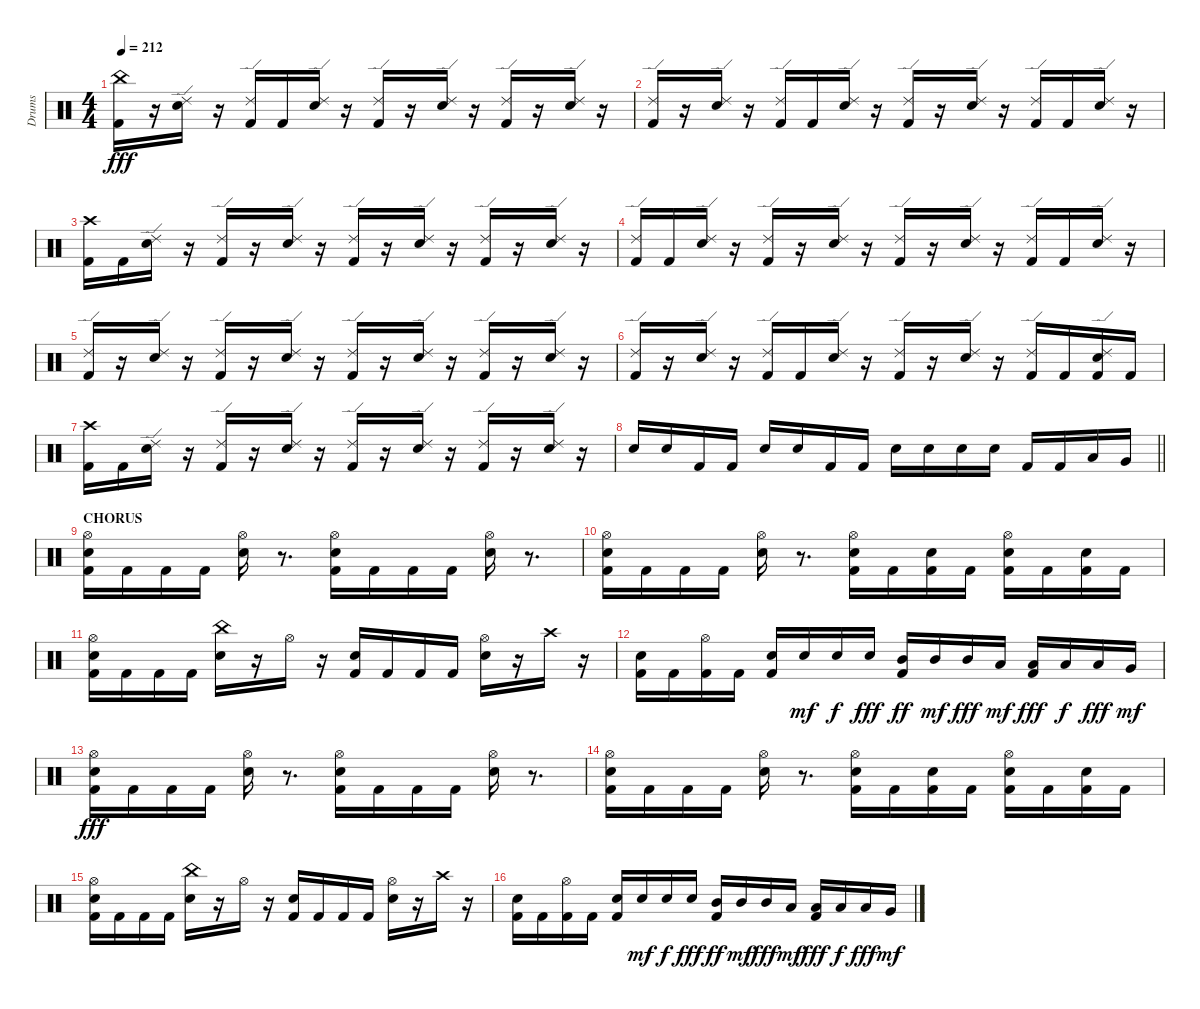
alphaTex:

\track ("Drums" "Drums") {instrument percussion}
\staff {score}
\articulation defaults
\ts (4 4)
\tempo 212
\clef neutral
\ks c
("Kick (hit) 2" "China (hit)").16{dy fff} r.16 ("Snare (hit) 2" "Ride (edge) 2").16 r.16 ("Kick (hit) 2" "Ride (edge) 2").16 "Kick (hit) 2".16 ("Snare (hit) 2" "Ride (edge) 2").16 r.16 ("Kick (hit) 2" "Ride (edge) 2").16 r.16 ("Snare (hit) 2" "Ride (edge) 2").16 r.16 ("Kick (hit) 2" "Ride (edge) 2").16 r.16 ("Snare (hit) 2" "Ride (edge) 2").16 r.16 |
("Kick (hit) 2" "Ride (edge) 2").16 r.16 ("Snare (hit) 2" "Ride (edge) 2").16 r.16 ("Kick (hit) 2" "Ride (edge) 2").16 "Kick (hit) 2".16 ("Snare (hit) 2" "Ride (edge) 2").16 r.16 ("Kick (hit) 2" "Ride (edge) 2").16 r.16 ("Snare (hit) 2" "Ride (edge) 2").16 r.16 ("Kick (hit) 2" "Ride (edge) 2").16 "Kick (hit) 2".16 ("Snare (hit) 2" "Ride (edge) 2").16 r.16 |
("Kick (hit) 2" "Crash high (hit)").16 "Kick (hit) 2".16 ("Snare (hit) 2" "Ride (edge) 2").16 r.16 ("Kick (hit) 2" "Ride (edge) 2").16 r.16 ("Snare (hit) 2" "Ride (edge) 2").16 r.16 ("Kick (hit) 2" "Ride (edge) 2").16 r.16 ("Snare (hit) 2" "Ride (edge) 2").16 r.16 ("Kick (hit) 2" "Ride (edge) 2").16 r.16 ("Snare (hit) 2" "Ride (edge) 2").16 r.16 |
("Kick (hit) 2" "Ride (edge) 2").16 "Kick (hit) 2".16 ("Snare (hit) 2" "Ride (edge) 2").16 r.16 ("Kick (hit) 2" "Ride (edge) 2").16 r.16 ("Snare (hit) 2" "Ride (edge) 2").16 r.16 ("Kick (hit) 2" "Ride (edge) 2").16 r.16 ("Snare (hit) 2" "Ride (edge) 2").16 r.16 ("Kick (hit) 2" "Ride (edge) 2").16 "Kick (hit) 2".16 ("Snare (hit) 2" "Ride (edge) 2").16 r.16 |
("Kick (hit) 2" "Ride (edge) 2").16 r.16 ("Snare (hit) 2" "Ride (edge) 2").16 r.16 ("Kick (hit) 2" "Ride (edge) 2").16 r.16 ("Snare (hit) 2" "Ride (edge) 2").16 r.16 ("Kick (hit) 2" "Ride (edge) 2").16 r.16 ("Snare (hit) 2" "Ride (edge) 2").16 r.16 ("Kick (hit) 2" "Ride (edge) 2").16 r.16 ("Snare (hit) 2" "Ride (edge) 2").16 r.16 |
("Kick (hit) 2" "Ride (edge) 2").16 r.16 ("Snare (hit) 2" "Ride (edge) 2").16 r.16 ("Kick (hit) 2" "Ride (edge) 2").16 "Kick (hit) 2".16 ("Snare (hit) 2" "Ride (edge) 2").16 r.16 ("Kick (hit) 2" "Ride (edge) 2").16 r.16 ("Snare (hit) 2" "Ride (edge) 2").16 r.16 ("Kick (hit) 2" "Ride (edge) 2").16 "Kick (hit) 2".16 ("Kick (hit) 2" "Snare (hit) 2" "Ride (edge) 2").16 "Kick (hit) 2".16 |
("Kick (hit) 2" "Crash high (hit)").16 "Kick (hit) 2".16 ("Snare (hit) 2" "Ride (edge) 2").16 r.16 ("Kick (hit) 2" "Ride (edge) 2").16 r.16 ("Snare (hit) 2" "Ride (edge) 2").16 r.16 ("Kick (hit) 2" "Ride (edge) 2").16 r.16 ("Snare (hit) 2" "Ride (edge) 2").16 r.16 ("Kick (hit) 2" "Ride (edge) 2").16 r.16 ("Snare (hit) 2" "Ride (edge) 2").16 r.16 |
\barLineRight lightlight "Snare (hit) 2".16 "Snare (hit) 2".16 "Kick (hit) 2".16 "Kick (hit) 2".16 "Snare (hit) 2".16 "Snare (hit) 2".16 "Kick (hit) 2".16 "Kick (hit) 2".16 "Snare (hit) 2".16 "Snare (hit) 2".16 "Snare (hit) 2".16 "Snare (hit) 2".16 "Kick (hit) 2".16 "Kick (hit) 2".16 "Low Tom (hit)".16 "Very Low Tom (hit)".16
|
\section ("" "CHORUS")
("Kick (hit) 2" "Snare (hit) 2" "Hi-Hat (open)").16 "Kick (hit) 2".16 "Kick (hit) 2".16 "Kick (hit) 2".16 ("Snare (hit) 2" "Hi-Hat (open)").16 r.8{d} ("Kick (hit) 2" "Snare (hit) 2" "Hi-Hat (open)").16 "Kick (hit) 2".16 "Kick (hit) 2".16 "Kick (hit) 2".16 ("Snare (hit) 2" "Hi-Hat (open)").16 r.8{d} |
("Kick (hit) 2" "Snare (hit) 2" "Hi-Hat (open)").16 "Kick (hit) 2".16 "Kick (hit) 2".16 "Kick (hit) 2".16 ("Snare (hit) 2" "Hi-Hat (open)").16 r.8{d} ("Kick (hit) 2" "Snare (hit) 2" "Hi-Hat (open)").16 "Kick (hit) 2".16 ("Kick (hit) 2" "Snare (hit) 2").16 "Kick (hit) 2".16 ("Kick (hit) 2" "Snare (hit) 2" "Hi-Hat (open)").16 "Kick (hit) 2".16 ("Kick (hit) 2" "Snare (hit) 2").16 "Kick (hit) 2".16 |
("Kick (hit) 2" "Snare (hit) 2" "Hi-Hat (open)").16 "Kick (hit) 2".16 "Kick (hit) 2".16 "Kick (hit) 2".16 ("Snare (hit) 2" "China (hit)").16 r.16 "Hi-Hat (open)".16 r.16 ("Kick (hit) 2" "Snare (hit) 2").16 "Kick (hit) 2".16 "Kick (hit) 2".16 "Kick (hit) 2".16 ("Snare (hit) 2" "Hi-Hat (open)").16 r.16 "Crash high (hit)".16 r.16 |
("Kick (hit) 2" "Snare (hit) 2").16 "Kick (hit) 2".16 ("Kick (hit) 2" "Hi-Hat (open)").16 "Kick (hit) 2".16 ("Kick (hit) 2" "Snare (hit) 2").16 "Snare (hit) 2".16{dy mf} "Snare (hit) 2".16{dy f} "Snare (hit) 2".16{dy fff} ("Kick (hit) 2" "Mid Tom (hit)").16{dy ff} "Mid Tom (hit)".16{dy mf} "Mid Tom (hit)".16{dy fff} "Low Tom (hit)".16{dy mf} ("Kick (hit) 2" "Low Tom (hit)").16{dy fff} "Low Tom (hit)".16{dy f} "Low Tom (hit)".16{dy fff} "Very Low Tom (hit)".16{dy mf} |
("Kick (hit) 2" "Snare (hit) 2" "Hi-Hat (open)").16{dy fff} "Kick (hit) 2".16 "Kick (hit) 2".16 "Kick (hit) 2".16 ("Snare (hit) 2" "Hi-Hat (open)").16 r.8{d} ("Kick (hit) 2" "Snare (hit) 2" "Hi-Hat (open)").16 "Kick (hit) 2".16 "Kick (hit) 2".16 "Kick (hit) 2".16 ("Snare (hit) 2" "Hi-Hat (open)").16 r.8{d} |
("Kick (hit) 2" "Snare (hit) 2" "Hi-Hat (open)").16 "Kick (hit) 2".16 "Kick (hit) 2".16 "Kick (hit) 2".16 ("Snare (hit) 2" "Hi-Hat (open)").16 r.8{d} ("Kick (hit) 2" "Snare (hit) 2" "Hi-Hat (open)").16 "Kick (hit) 2".16 ("Kick (hit) 2" "Snare (hit) 2").16 "Kick (hit) 2".16 ("Kick (hit) 2" "Snare (hit) 2" "Hi-Hat (open)").16 "Kick (hit) 2".16 ("Kick (hit) 2" "Snare (hit) 2").16 "Kick (hit) 2".16 |
("Kick (hit) 2" "Snare (hit) 2" "Hi-Hat (open)").16 "Kick (hit) 2".16 "Kick (hit) 2".16 "Kick (hit) 2".16 ("Snare (hit) 2" "China (hit)").16 r.16 "Hi-Hat (open)".16 r.16 ("Kick (hit) 2" "Snare (hit) 2").16 "Kick (hit) 2".16 "Kick (hit) 2".16 "Kick (hit) 2".16 ("Snare (hit) 2" "Hi-Hat (open)").16 r.16 "Crash high (hit)".16 r.16 |
("Kick (hit) 2" "Snare (hit) 2").16 "Kick (hit) 2".16 ("Kick (hit) 2" "Hi-Hat (open)").16 "Kick (hit) 2".16 ("Kick (hit) 2" "Snare (hit) 2").16 "Snare (hit) 2".16{dy mf} "Snare (hit) 2".16{dy f} "Snare (hit) 2".16{dy fff} ("Kick (hit) 2" "Mid Tom (hit)").16{dy ff} "Mid Tom (hit)".16{dy mf} "Mid Tom (hit)".16{dy fff} "Low Tom (hit)".16{dy mf} ("Kick (hit) 2" "Low Tom (hit)").16{dy fff} "Low Tom (hit)".16{dy f} "Low Tom (hit)".16{dy fff} "Very Low Tom (hit)".16{dy mf}
